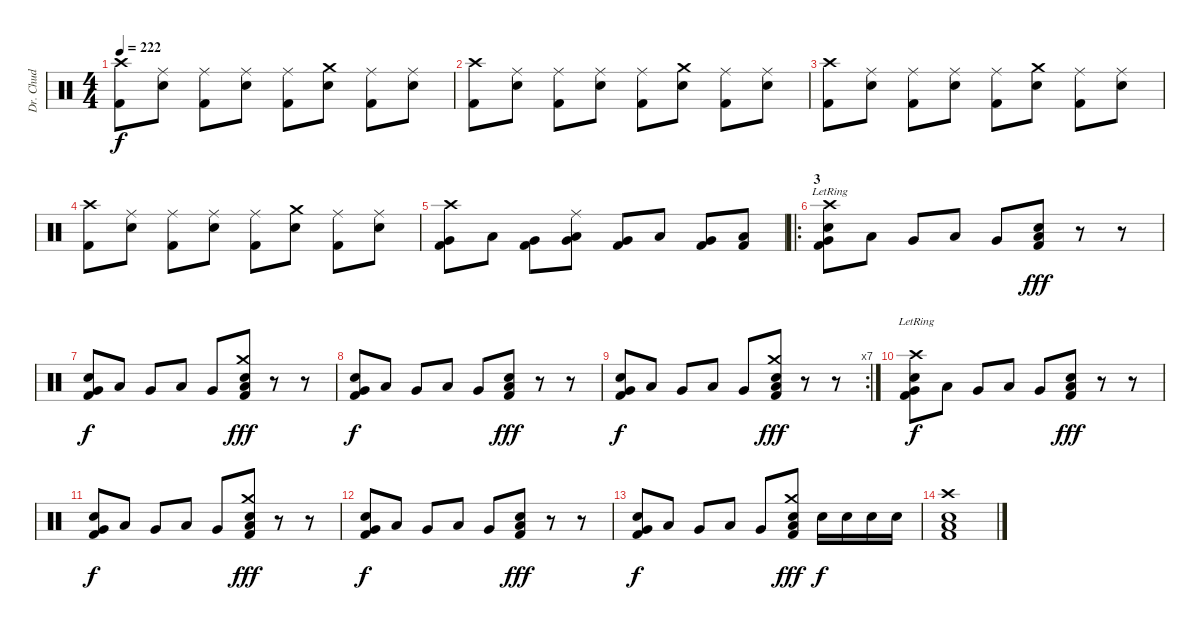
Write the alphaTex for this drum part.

\track ("Dr. Chud" "Dr. Chud") {instrument percussion}
\staff {score}
\articulation defaults
\ts (4 4)
\tempo 222
\clef neutral
\ks c
("Crash high (hit)" "Kick (hit) 2").8{dy f} ("Ride (middle)" "Electric Snare (hit)").8 ("Ride (middle)" "Kick (hit) 2").8 ("Ride (middle)" "Electric Snare (hit)").8 ("Ride (middle)" "Kick (hit) 2").8 ("Crash medium (hit)" "Electric Snare (hit)").8 ("Ride (middle)" "Kick (hit) 2").8 ("Ride (middle)" "Electric Snare (hit)").8 |
("Crash high (hit)" "Kick (hit) 2").8 ("Ride (middle)" "Electric Snare (hit)").8 ("Ride (middle)" "Kick (hit) 2").8 ("Ride (middle)" "Electric Snare (hit)").8 ("Ride (middle)" "Kick (hit) 2").8 ("Crash medium (hit)" "Electric Snare (hit)").8 ("Ride (middle)" "Kick (hit) 2").8 ("Ride (middle)" "Electric Snare (hit)").8 |
("Crash high (hit)" "Kick (hit) 2").8 ("Ride (middle)" "Electric Snare (hit)").8 ("Ride (middle)" "Kick (hit) 2").8 ("Ride (middle)" "Electric Snare (hit)").8 ("Ride (middle)" "Kick (hit) 2").8 ("Crash medium (hit)" "Electric Snare (hit)").8 ("Ride (middle)" "Kick (hit) 2").8 ("Ride (middle)" "Electric Snare (hit)").8 |
("Crash high (hit)" "Kick (hit) 2").8 ("Ride (middle)" "Electric Snare (hit)").8 ("Ride (middle)" "Kick (hit) 2").8 ("Ride (middle)" "Electric Snare (hit)").8 ("Ride (middle)" "Kick (hit) 2").8 ("Crash medium (hit)" "Electric Snare (hit)").8 ("Ride (middle)" "Kick (hit) 2").8 ("Ride (middle)" "Electric Snare (hit)").8 |
("Crash high (hit)" "Very Low Tom (hit)" "Kick (hit) 2").8 "Low Floor Tom (hit)".8 ("Very Low Tom (hit)" "Kick (hit) 2").8 ("Ride (middle)" "Very Low Tom (hit)" "Low Floor Tom (hit)").8 ("Very Low Tom (hit)" "Kick (hit) 2").8 "Low Floor Tom (hit)".8 ("Very Low Tom (hit)" "Kick (hit) 2").8 ("Low Floor Tom (hit)" "Kick (hit) 2").8 |
\ro
\section ("" "3")
("Crash high (hit)"{lr} "Very Low Tom (hit)" "Electric Snare (hit)" "Kick (hit) 2").8 "Low Floor Tom (hit)".8 "Very Low Tom (hit)".8 "Low Floor Tom (hit)".8 "Very Low Tom (hit)".8 ("Low Floor Tom (hit)" "Electric Snare (hit)" "Kick (hit) 2").8{dy fff} r.8 r.8 |
("Very Low Tom (hit)" "Electric Snare (hit)" "Kick (hit) 2").8{dy f} "Low Floor Tom (hit)".8 "Very Low Tom (hit)".8 "Low Floor Tom (hit)".8 "Very Low Tom (hit)".8 ("Crash medium (hit)" "Low Floor Tom (hit)" "Electric Snare (hit)" "Kick (hit) 2").8{dy fff} r.8 r.8 |
("Very Low Tom (hit)" "Electric Snare (hit)" "Kick (hit) 2").8{dy f} "Low Floor Tom (hit)".8 "Very Low Tom (hit)".8 "Low Floor Tom (hit)".8 "Very Low Tom (hit)".8 ("Low Floor Tom (hit)" "Electric Snare (hit)" "Kick (hit) 2").8{dy fff} r.8 r.8 |
\rc 7
("Very Low Tom (hit)" "Electric Snare (hit)" "Kick (hit) 2").8{dy f} "Low Floor Tom (hit)".8 "Very Low Tom (hit)".8 "Low Floor Tom (hit)".8 "Very Low Tom (hit)".8 ("Crash medium (hit)" "Low Floor Tom (hit)" "Electric Snare (hit)" "Kick (hit) 2").8{dy fff} r.8 r.8 |
("Crash high (hit)"{lr} "Very Low Tom (hit)" "Electric Snare (hit)" "Kick (hit) 2").8{dy f} "Low Floor Tom (hit)".8 "Very Low Tom (hit)".8 "Low Floor Tom (hit)".8 "Very Low Tom (hit)".8 ("Low Floor Tom (hit)" "Electric Snare (hit)" "Kick (hit) 2").8{dy fff} r.8 r.8 |
("Very Low Tom (hit)" "Electric Snare (hit)" "Kick (hit) 2").8{dy f} "Low Floor Tom (hit)".8 "Very Low Tom (hit)".8 "Low Floor Tom (hit)".8 "Very Low Tom (hit)".8 ("Crash medium (hit)" "Low Floor Tom (hit)" "Electric Snare (hit)" "Kick (hit) 2").8{dy fff} r.8 r.8 |
("Very Low Tom (hit)" "Electric Snare (hit)" "Kick (hit) 2").8{dy f} "Low Floor Tom (hit)".8 "Very Low Tom (hit)".8 "Low Floor Tom (hit)".8 "Very Low Tom (hit)".8 ("Low Floor Tom (hit)" "Electric Snare (hit)" "Kick (hit) 2").8{dy fff} r.8 r.8 |
("Very Low Tom (hit)" "Electric Snare (hit)" "Kick (hit) 2").8{dy f} "Low Floor Tom (hit)".8 "Very Low Tom (hit)".8 "Low Floor Tom (hit)".8 "Very Low Tom (hit)".8 ("Crash medium (hit)" "Low Floor Tom (hit)" "Electric Snare (hit)" "Kick (hit) 2").8{dy fff} "Electric Snare (hit)".16{dy f} "Electric Snare (hit)".16 "Electric Snare (hit)".16 "Electric Snare (hit)".16 |
("Crash high (hit)" "Low Floor Tom (hit)" "Electric Snare (hit)" "Kick (hit) 2").1
